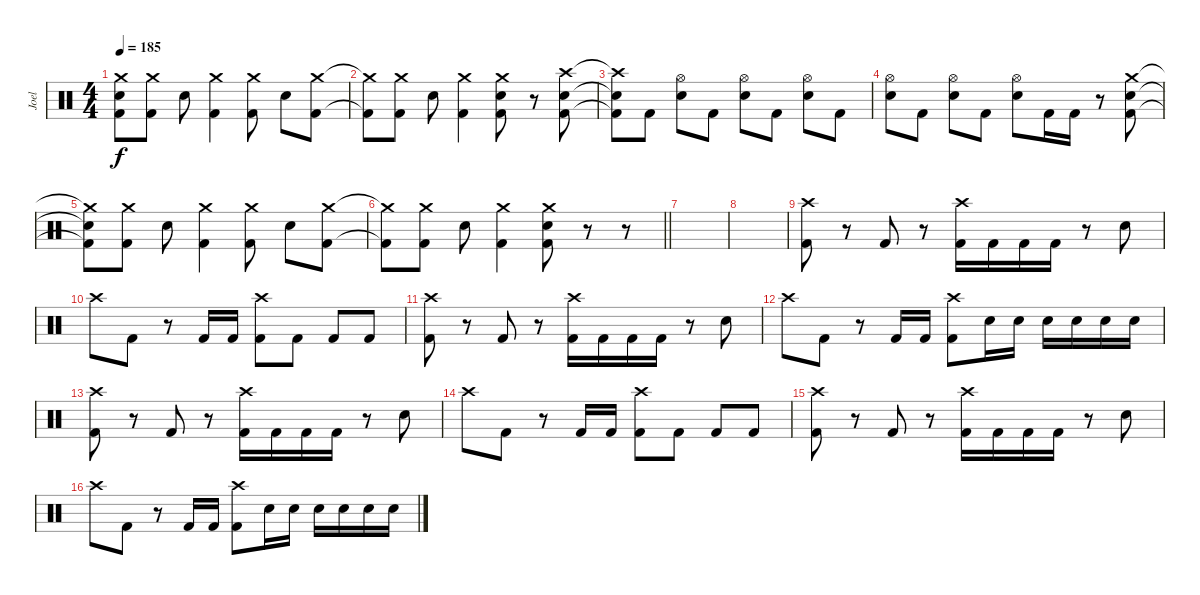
\track ("Joel" "Joel") {instrument percussion}
\staff {score}
\articulation defaults
\ts (4 4)
\tempo 185
\clef neutral
\ks c
("Crash medium (hit)"{t} "Electric Snare (hit)"{t} "Kick (hit) 2"{t}).8{dy f} ("Crash medium (hit)" "Kick (hit) 2").8 "Electric Snare (hit)".8 ("Crash medium (hit)" "Kick (hit) 2").4 ("Crash medium (hit)" "Kick (hit) 2").8 "Electric Snare (hit)".8 ("Crash medium (hit)" "Kick (hit) 2").8 |
("Crash medium (hit)"{t} "Kick (hit) 2"{t}).8 ("Crash medium (hit)" "Kick (hit) 2").8 "Electric Snare (hit)".8 ("Crash medium (hit)" "Kick (hit) 2").4 ("Crash medium (hit)" "Electric Snare (hit)" "Kick (hit) 2").8 r.8 ("Crash high (hit)" "Electric Snare (hit)" "Kick (hit) 2").8 |
("Crash high (hit)"{t} "Electric Snare (hit)"{t} "Kick (hit) 2"{t}).8 "Kick (hit) 2".8 ("Hi-Hat (open)" "Electric Snare (hit)").8 "Kick (hit) 2".8 ("Hi-Hat (open)" "Electric Snare (hit)").8 "Kick (hit) 2".8 ("Hi-Hat (open)" "Electric Snare (hit)").8 "Kick (hit) 2".8 |
("Hi-Hat (open)" "Electric Snare (hit)").8 "Kick (hit) 2".8 ("Hi-Hat (open)" "Electric Snare (hit)").8 "Kick (hit) 2".8 ("Hi-Hat (open)" "Electric Snare (hit)").8 "Kick (hit) 2".16 "Kick (hit) 2".16 r.8 ("Crash medium (hit)" "Electric Snare (hit)" "Kick (hit) 2").8 |
("Crash medium (hit)"{t} "Electric Snare (hit)"{t} "Kick (hit) 2"{t}).8 ("Crash medium (hit)" "Kick (hit) 2").8 "Electric Snare (hit)".8 ("Crash medium (hit)" "Kick (hit) 2").4 ("Crash medium (hit)" "Kick (hit) 2").8 "Electric Snare (hit)".8 ("Crash medium (hit)" "Kick (hit) 2").8 |
\barLineRight lightlight
("Crash medium (hit)"{t} "Kick (hit) 2"{t}).8 ("Crash medium (hit)" "Kick (hit) 2").8 "Electric Snare (hit)".8 ("Crash medium (hit)" "Kick (hit) 2").4 ("Crash medium (hit)" "Electric Snare (hit)" "Kick (hit) 2").8 r.8 r.8 |
\section ("" "")
|
|
("Crash high (hit)" "Kick (hit) 2").8 r.8 "Kick (hit) 2".8 r.8 ("Crash high (hit)" "Kick (hit) 2").16 "Kick (hit) 2".16 "Kick (hit) 2".16 "Kick (hit) 2".16 r.8 "Electric Snare (hit)".8 |
"Crash high (hit)".8 "Kick (hit) 2".8 r.8 "Kick (hit) 2".16 "Kick (hit) 2".16 ("Crash high (hit)" "Kick (hit) 2").8 "Kick (hit) 2".8 "Kick (hit) 2".8 "Kick (hit) 2".8 |
("Crash high (hit)" "Kick (hit) 2").8 r.8 "Kick (hit) 2".8 r.8 ("Crash high (hit)" "Kick (hit) 2").16 "Kick (hit) 2".16 "Kick (hit) 2".16 "Kick (hit) 2".16 r.8 "Electric Snare (hit)".8 |
"Crash high (hit)".8 "Kick (hit) 2".8 r.8 "Kick (hit) 2".16 "Kick (hit) 2".16 ("Crash high (hit)" "Kick (hit) 2").8 "Electric Snare (hit)".16 "Electric Snare (hit)".16 "Electric Snare (hit)".16 "Electric Snare (hit)".16 "Electric Snare (hit)".16 "Electric Snare (hit)".16 |
("Crash high (hit)" "Kick (hit) 2").8 r.8 "Kick (hit) 2".8 r.8 ("Crash high (hit)" "Kick (hit) 2").16 "Kick (hit) 2".16 "Kick (hit) 2".16 "Kick (hit) 2".16 r.8 "Electric Snare (hit)".8 |
"Crash high (hit)".8 "Kick (hit) 2".8 r.8 "Kick (hit) 2".16 "Kick (hit) 2".16 ("Crash high (hit)" "Kick (hit) 2").8 "Kick (hit) 2".8 "Kick (hit) 2".8 "Kick (hit) 2".8 |
("Crash high (hit)" "Kick (hit) 2").8 r.8 "Kick (hit) 2".8 r.8 ("Crash high (hit)" "Kick (hit) 2").16 "Kick (hit) 2".16 "Kick (hit) 2".16 "Kick (hit) 2".16 r.8 "Electric Snare (hit)".8 |
"Crash high (hit)".8 "Kick (hit) 2".8 r.8 "Kick (hit) 2".16 "Kick (hit) 2".16 ("Crash high (hit)" "Kick (hit) 2").8 "Electric Snare (hit)".16 "Electric Snare (hit)".16 "Electric Snare (hit)".16 "Electric Snare (hit)".16 "Electric Snare (hit)".16 "Electric Snare (hit)".16
